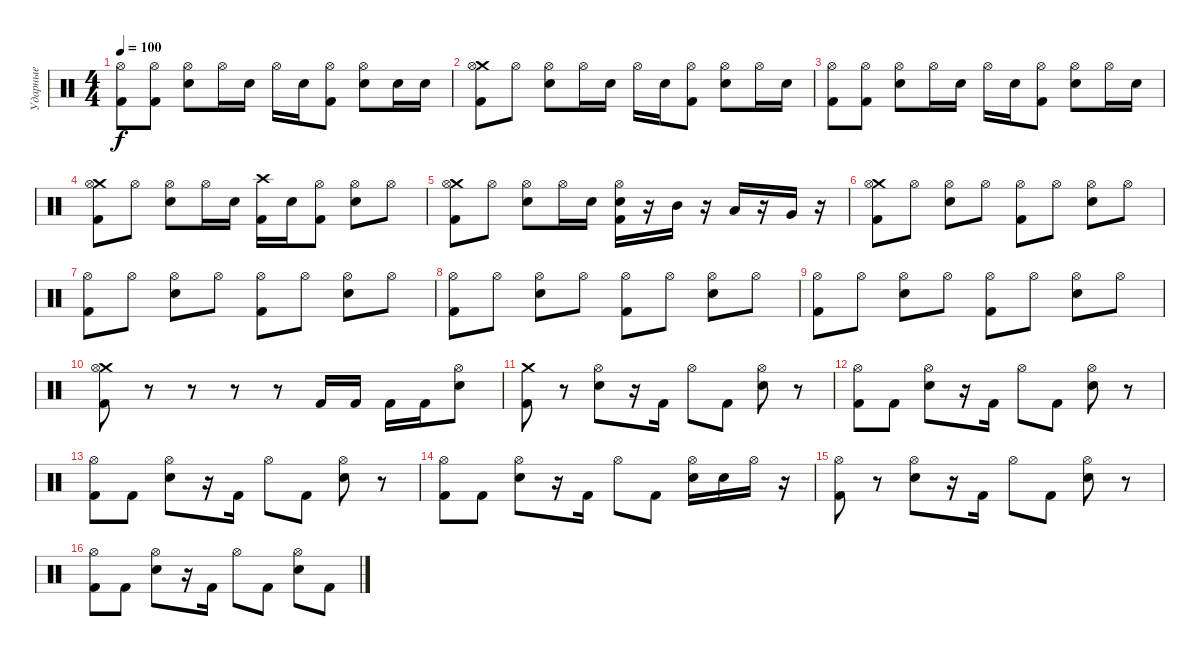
\track ("Ударные" "Ударные") {instrument percussion}
\staff {score}
\articulation defaults
\ts (4 4)
\tempo 100
\clef neutral
\ks c
("Hi-Hat (open)" "Kick (hit) 2").8{dy f} ("Hi-Hat (open)" "Kick (hit) 2").8 ("Hi-Hat (open)" "Electric Snare (hit)").8 "Hi-Hat (open)".16 "Electric Snare (hit)".16 "Hi-Hat (open)".16 "Electric Snare (hit)".16 ("Hi-Hat (open)" "Kick (hit) 2").8 ("Hi-Hat (open)" "Electric Snare (hit)").8 "Electric Snare (hit)".16 "Electric Snare (hit)".16 |
("Crash medium (hit)" "Hi-Hat (open)" "Kick (hit) 2").8 "Hi-Hat (open)".8 ("Hi-Hat (open)" "Electric Snare (hit)").8 "Hi-Hat (open)".16 "Electric Snare (hit)".16 "Hi-Hat (open)".16 "Electric Snare (hit)".16 ("Hi-Hat (open)" "Kick (hit) 2").8 ("Hi-Hat (open)" "Electric Snare (hit)").8 "Hi-Hat (open)".16 "Electric Snare (hit)".16 |
("Hi-Hat (open)" "Kick (hit) 2").8 ("Hi-Hat (open)" "Kick (hit) 2").8 ("Hi-Hat (open)" "Electric Snare (hit)").8 "Hi-Hat (open)".16 "Electric Snare (hit)".16 "Hi-Hat (open)".16 "Electric Snare (hit)".16 ("Hi-Hat (open)" "Kick (hit) 2").8 ("Hi-Hat (open)" "Electric Snare (hit)").8 "Hi-Hat (open)".16 "Electric Snare (hit)".16 |
("Crash medium (hit)" "Hi-Hat (open)" "Kick (hit) 2").8 "Hi-Hat (open)".8 ("Hi-Hat (open)" "Electric Snare (hit)").8 "Hi-Hat (open)".16 "Electric Snare (hit)".16 ("Crash high (hit)" "Kick (hit) 2").16 "Electric Snare (hit)".16 ("Hi-Hat (open)" "Kick (hit) 2").8 ("Hi-Hat (open)" "Electric Snare (hit)").8 "Hi-Hat (open)".8 |
("Crash medium (hit)" "Hi-Hat (open)" "Kick (hit) 2").8 "Hi-Hat (open)".8 ("Hi-Hat (open)" "Electric Snare (hit)").8 "Hi-Hat (open)".16 "Electric Snare (hit)".16 ("Hi-Hat (open)" "Electric Snare (hit)" "Kick (hit) 2").16 r.16 "Mid Tom (hit)".16 r.16 "Low Tom (hit)".16 r.16 "Very Low Tom (hit)".16 r.16 |
("Crash medium (hit)" "Hi-Hat (open)" "Kick (hit) 2").8 "Hi-Hat (open)".8 ("Hi-Hat (open)" "Electric Snare (hit)").8 "Hi-Hat (open)".8 ("Hi-Hat (open)" "Kick (hit) 2").8 "Hi-Hat (open)".8 ("Hi-Hat (open)" "Electric Snare (hit)").8 "Hi-Hat (open)".8 |
("Hi-Hat (open)" "Kick (hit) 2").8 "Hi-Hat (open)".8 ("Hi-Hat (open)" "Electric Snare (hit)").8 "Hi-Hat (open)".8 ("Hi-Hat (open)" "Kick (hit) 2").8 "Hi-Hat (open)".8 ("Hi-Hat (open)" "Electric Snare (hit)").8 "Hi-Hat (open)".8 |
("Hi-Hat (open)" "Kick (hit) 2").8 "Hi-Hat (open)".8 ("Hi-Hat (open)" "Electric Snare (hit)").8 "Hi-Hat (open)".8 ("Hi-Hat (open)" "Kick (hit) 2").8 "Hi-Hat (open)".8 ("Hi-Hat (open)" "Electric Snare (hit)").8 "Hi-Hat (open)".8 |
("Hi-Hat (open)" "Kick (hit) 2").8 "Hi-Hat (open)".8 ("Hi-Hat (open)" "Electric Snare (hit)").8 "Hi-Hat (open)".8 ("Hi-Hat (open)" "Kick (hit) 2").8 "Hi-Hat (open)".8 ("Hi-Hat (open)" "Electric Snare (hit)").8 "Hi-Hat (open)".8 |
("Crash medium (hit)" "Hi-Hat (open)" "Kick (hit) 2").8 r.8 r.8 r.8 r.8 "Kick (hit) 2".16 "Kick (hit) 2".16 "Kick (hit) 2".16 "Kick (hit) 2".16 ("Hi-Hat (open)" "Electric Snare (hit)").8 |
("Crash medium (hit)" "Kick (hit) 2").8 r.8 ("Hi-Hat (open)" "Electric Snare (hit)").8 r.16 "Kick (hit) 2".16 "Hi-Hat (open)".8 "Kick (hit) 2".8 ("Hi-Hat (open)" "Electric Snare (hit)").8 r.8 |
("Hi-Hat (open)" "Kick (hit) 2").8 "Kick (hit) 2".8 ("Hi-Hat (open)" "Electric Snare (hit)").8 r.16 "Kick (hit) 2".16 "Hi-Hat (open)".8 "Kick (hit) 2".8 ("Hi-Hat (open)" "Electric Snare (hit)").8 r.8 |
("Hi-Hat (open)" "Kick (hit) 2").8 "Kick (hit) 2".8 ("Hi-Hat (open)" "Electric Snare (hit)").8 r.16 "Kick (hit) 2".16 "Hi-Hat (open)".8 "Kick (hit) 2".8 ("Hi-Hat (open)" "Electric Snare (hit)").8 r.8 |
("Hi-Hat (open)" "Kick (hit) 2").8 "Kick (hit) 2".8 ("Hi-Hat (open)" "Electric Snare (hit)").8 r.16 "Kick (hit) 2".16 "Hi-Hat (open)".8 "Kick (hit) 2".8 ("Hi-Hat (open)" "Electric Snare (hit)").16 "Electric Snare (hit)".16 "Hi-Hat (open)".16 r.16 |
("Hi-Hat (open)" "Kick (hit) 2").8 r.8 ("Hi-Hat (open)" "Electric Snare (hit)").8 r.16 "Kick (hit) 2".16 "Hi-Hat (open)".8 "Kick (hit) 2".8 ("Hi-Hat (open)" "Electric Snare (hit)").8 r.8 |
("Hi-Hat (open)" "Kick (hit) 2").8 "Kick (hit) 2".8 ("Hi-Hat (open)" "Electric Snare (hit)").8 r.16 "Kick (hit) 2".16 "Hi-Hat (open)".8 "Kick (hit) 2".8 ("Hi-Hat (open)" "Electric Snare (hit)").8 "Kick (hit) 2".8
